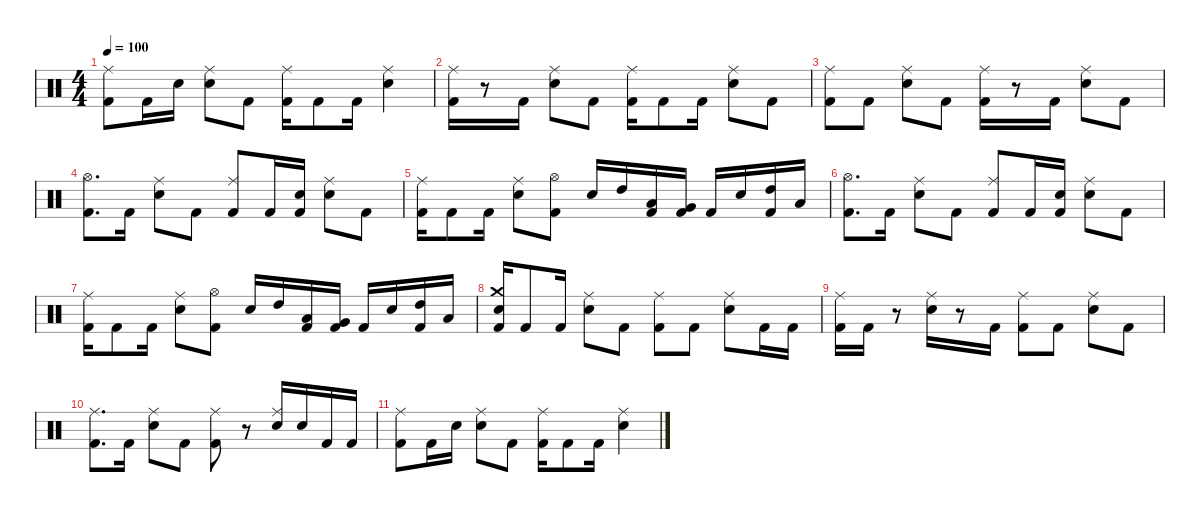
\defaultSystemsLayout 4
\hideDynamics
\bracketExtendMode nobrackets
\singleTrackTrackNamePolicy hidden
\multiTrackTrackNamePolicy hidden
\firstSystemTrackNameMode fullname
\firstSystemTrackNameOrientation horizontal
\otherSystemsTrackNameOrientation horizontal
\track ("Drums" "drm.") {instrument percussion}
\staff {score}
\articulation defaults
\ts (4 4)
\tempo 100
\clef neutral
\ks c
("Kick (hit) 2" "Ride (middle)").8{dy f beam Down} "Kick (hit) 2".16{beam Down} "Snare (hit) 2".16{dy p beam Down} ("Ride (middle)" "Snare (hit) 2").8{dy f beam Down} "Kick (hit) 2".8{beam Down} ("Ride (middle)" "Kick (hit) 2").16{beam Down} "Kick (hit) 2".8{beam Down} "Kick (hit) 2".16{beam Down} ("Ride (middle)" "Snare (hit) 2").4{beam Down} |
("Ride (middle)" "Kick (hit) 2").16{beam Down} r.8{beam Down} "Kick (hit) 2".16{beam Down} ("Ride (middle)" "Snare (hit) 2").8{beam Down} "Kick (hit) 2".8{beam Down} ("Ride (middle)" "Kick (hit) 2").16{beam Down} "Kick (hit) 2".8{beam Down} "Kick (hit) 2".16{beam Down} ("Ride (middle)" "Snare (hit) 2").8{beam Down} "Kick (hit) 2".8{beam Down} |
("Ride (middle)" "Kick (hit) 2").8{beam Down} "Kick (hit) 2".8{beam Down} ("Ride (middle)" "Snare (hit) 2").8{beam Down} "Kick (hit) 2".8{beam Down} ("Ride (middle)" "Kick (hit) 2").16{beam Down} r.8{beam Down} "Kick (hit) 2".16{beam Down} ("Ride (middle)" "Snare (hit) 2").8{beam Down} "Kick (hit) 2".8{beam Down} |
("Hi-Hat (open)" "Kick (hit) 2").8{d beam Down} "Kick (hit) 2".16{beam Down} ("Ride (middle)" "Snare (hit) 2").8{beam Down} "Kick (hit) 2".8{beam Down} ("Kick (hit) 2" "Ride (middle)").8{beam Up} "Kick (hit) 2".16{beam Up} ("Kick (hit) 2" "Snare (hit) 2").16{beam Up} ("Ride (middle)" "Snare (hit) 2").8{beam Down} "Kick (hit) 2".8{beam Down} |
("Ride (middle)" "Kick (hit) 2").16{beam Down} "Kick (hit) 2".8{beam Down} "Kick (hit) 2".16{beam Down} ("Ride (middle)" "Snare (hit) 2").8{beam Down} ("Kick (hit) 2" "Hi-Hat (open)").8{beam Down} "Snare (hit) 2".16{beam Up} "High Tom (hit)".16{dy mp beam Up} ("Low Tom (hit)" "Kick (hit) 2").16{beam Up} ("Very Low Tom (hit)" "Kick (hit) 2").16{beam Up} "Kick (hit) 2".16{dy f beam Up} "Snare (hit) 2".16{beam Up} ("Kick (hit) 2" "High Tom (hit)").16{beam Up} "Low Tom (hit)".16{dy mp beam Up} |
("Hi-Hat (open)" "Kick (hit) 2").8{d dy f beam Down} "Kick (hit) 2".16{beam Down} ("Ride (middle)" "Snare (hit) 2").8{beam Down} "Kick (hit) 2".8{beam Down} ("Kick (hit) 2" "Ride (middle)").8{beam Up} "Kick (hit) 2".16{beam Up} ("Kick (hit) 2" "Snare (hit) 2").16{beam Up} ("Ride (middle)" "Snare (hit) 2").8{beam Down} "Kick (hit) 2".8{beam Down} |
("Ride (middle)" "Kick (hit) 2").16{beam Down} "Kick (hit) 2".8{beam Down} "Kick (hit) 2".16{beam Down} ("Ride (middle)" "Snare (hit) 2").8{beam Down} ("Kick (hit) 2" "Hi-Hat (open)").8{beam Down} "Snare (hit) 2".16{beam Up} "High Tom (hit)".16{dy mp beam Up} ("Low Tom (hit)" "Kick (hit) 2").16{beam Up} ("Very Low Tom (hit)" "Kick (hit) 2").16{beam Up} "Kick (hit) 2".16{dy f beam Up} "Snare (hit) 2".16{beam Up} ("Kick (hit) 2" "High Tom (hit)").16{beam Up} "Low Tom (hit)".16{dy mp beam Up} |
("Kick (hit) 2" "Snare (hit) 2" "Crash medium (hit)").16{dy f beam Up} "Kick (hit) 2".8{beam Up} "Kick (hit) 2".16{beam Up} ("Ride (middle)" "Snare (hit) 2").8{beam Down} "Kick (hit) 2".8{beam Down} ("Kick (hit) 2" "Ride (middle)").8{beam Down} "Kick (hit) 2".8{beam Down} ("Snare (hit) 2" "Ride (middle)").8{beam Down} "Kick (hit) 2".16{beam Down} "Kick (hit) 2".16{beam Down} |
("Ride (middle)" "Kick (hit) 2").16{beam Down} "Kick (hit) 2".16{beam Down} r.8{beam Down} ("Ride (middle)" "Snare (hit) 2").16{beam Down} r.8{beam Down} "Kick (hit) 2".16{dy mf beam Down} ("Kick (hit) 2" "Ride (middle)").8{dy f beam Down} "Kick (hit) 2".8{beam Down} ("Snare (hit) 2" "Ride (middle)").8{beam Down} "Kick (hit) 2".8{beam Down} |
("Kick (hit) 2" "Ride (middle)").8{d beam Down} "Kick (hit) 2".16{beam Down} ("Snare (hit) 2" "Ride (middle)").8{beam Down} "Kick (hit) 2".8{beam Down} ("Kick (hit) 2" "Ride (middle)").8{beam Down} r.8{beam Down} ("Snare (hit) 2" "Ride (middle)").16{beam Up} "Snare (hit) 2".16{dy mp beam Up} "Kick (hit) 2".16{dy f beam Up} "Kick (hit) 2".16{beam Up} |
("Kick (hit) 2" "Ride (middle)").8{beam Down} "Kick (hit) 2".16{beam Down} "Snare (hit) 2".16{dy p beam Down} ("Ride (middle)" "Snare (hit) 2").8{dy f beam Down} "Kick (hit) 2".8{beam Down} ("Ride (middle)" "Kick (hit) 2").16{beam Down} "Kick (hit) 2".8{beam Down} "Kick (hit) 2".16{beam Down} ("Ride (middle)" "Snare (hit) 2").4{beam Down}
